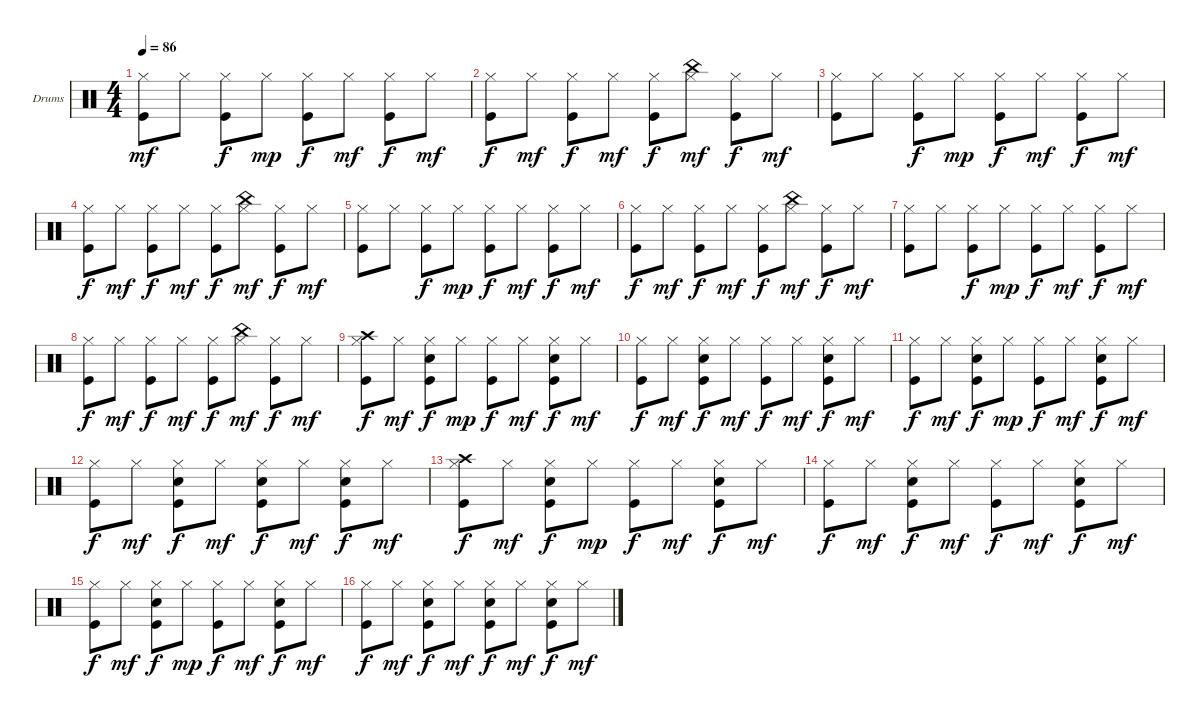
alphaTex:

\bracketExtendMode groupsimilarinstruments
\firstSystemTrackNameOrientation horizontal
\otherSystemsTrackNameOrientation horizontal
\track ("Ударные" "Drums") {instrument percussion}
\staff {score}
\articulation defaults
\ts (4 4)
\tempo 86
\clef neutral
\ks c
("Hi-Hat (closed)" "Kick (hit)").8{dy mf} "Hi-Hat (closed)".8 ("Hi-Hat (closed)" "Kick (hit)").8{dy f} "Hi-Hat (closed)".8{dy mp} ("Hi-Hat (closed)" "Kick (hit)").8{dy f} "Hi-Hat (closed)".8{dy mf} ("Hi-Hat (closed)" "Kick (hit)").8{dy f} "Hi-Hat (closed)".8{dy mf} |
("Hi-Hat (closed)" "Kick (hit)").8{dy f} "Hi-Hat (closed)".8{dy mf} ("Hi-Hat (closed)" "Kick (hit)").8{dy f} "Hi-Hat (closed)".8{dy mf} ("Hi-Hat (closed)" "Kick (hit)").8{dy f} ("Hi-Hat (closed)" "China (hit)").8{dy mf} ("Hi-Hat (closed)" "Kick (hit)").8{dy f} "Hi-Hat (closed)".8{dy mf} |
("Hi-Hat (closed)" "Kick (hit)").8 "Hi-Hat (closed)".8 ("Hi-Hat (closed)" "Kick (hit)").8{dy f} "Hi-Hat (closed)".8{dy mp} ("Hi-Hat (closed)" "Kick (hit)").8{dy f} "Hi-Hat (closed)".8{dy mf} ("Hi-Hat (closed)" "Kick (hit)").8{dy f} "Hi-Hat (closed)".8{dy mf} |
("Hi-Hat (closed)" "Kick (hit)").8{dy f} "Hi-Hat (closed)".8{dy mf} ("Hi-Hat (closed)" "Kick (hit)").8{dy f} "Hi-Hat (closed)".8{dy mf} ("Hi-Hat (closed)" "Kick (hit)").8{dy f} ("Hi-Hat (closed)" "China (hit)").8{dy mf} ("Hi-Hat (closed)" "Kick (hit)").8{dy f} "Hi-Hat (closed)".8{dy mf} |
("Hi-Hat (closed)" "Kick (hit)").8 "Hi-Hat (closed)".8 ("Hi-Hat (closed)" "Kick (hit)").8{dy f} "Hi-Hat (closed)".8{dy mp} ("Hi-Hat (closed)" "Kick (hit)").8{dy f} "Hi-Hat (closed)".8{dy mf} ("Hi-Hat (closed)" "Kick (hit)").8{dy f} "Hi-Hat (closed)".8{dy mf} |
("Hi-Hat (closed)" "Kick (hit)").8{dy f} "Hi-Hat (closed)".8{dy mf} ("Hi-Hat (closed)" "Kick (hit)").8{dy f} "Hi-Hat (closed)".8{dy mf} ("Hi-Hat (closed)" "Kick (hit)").8{dy f} ("Hi-Hat (closed)" "China (hit)").8{dy mf} ("Hi-Hat (closed)" "Kick (hit)").8{dy f} "Hi-Hat (closed)".8{dy mf} |
("Hi-Hat (closed)" "Kick (hit)").8 "Hi-Hat (closed)".8 ("Hi-Hat (closed)" "Kick (hit)").8{dy f} "Hi-Hat (closed)".8{dy mp} ("Hi-Hat (closed)" "Kick (hit)").8{dy f} "Hi-Hat (closed)".8{dy mf} ("Hi-Hat (closed)" "Kick (hit)").8{dy f} "Hi-Hat (closed)".8{dy mf} |
("Hi-Hat (closed)" "Kick (hit)").8{dy f} "Hi-Hat (closed)".8{dy mf} ("Hi-Hat (closed)" "Kick (hit)").8{dy f} "Hi-Hat (closed)".8{dy mf} ("Hi-Hat (closed)" "Kick (hit)").8{dy f} ("Hi-Hat (closed)" "China (hit)").8{dy mf} ("Hi-Hat (closed)" "Kick (hit)").8{dy f} "Hi-Hat (closed)".8{dy mf} |
("Hi-Hat (closed)" "Crash high (hit)" "Kick (hit)").8{dy f} "Hi-Hat (closed)".8{dy mf} ("Snare (hit) 2" "Hi-Hat (closed)" "Kick (hit)").8{dy f} "Hi-Hat (closed)".8{dy mp} ("Hi-Hat (closed)" "Kick (hit)").8{dy f} "Hi-Hat (closed)".8{dy mf} ("Snare (hit) 2" "Hi-Hat (closed)" "Kick (hit)").8{dy f} "Hi-Hat (closed)".8{dy mf} |
("Hi-Hat (closed)" "Kick (hit)").8{dy f} "Hi-Hat (closed)".8{dy mf} ("Snare (hit) 2" "Hi-Hat (closed)" "Kick (hit)").8{dy f} "Hi-Hat (closed)".8{dy mf} ("Hi-Hat (closed)" "Kick (hit)").8{dy f} "Hi-Hat (closed)".8{dy mf} ("Snare (hit) 2" "Hi-Hat (closed)" "Kick (hit)").8{dy f} "Hi-Hat (closed)".8{dy mf} |
("Hi-Hat (closed)" "Kick (hit)").8{dy f} "Hi-Hat (closed)".8{dy mf} ("Snare (hit) 2" "Hi-Hat (closed)" "Kick (hit)").8{dy f} "Hi-Hat (closed)".8{dy mp} ("Hi-Hat (closed)" "Kick (hit)").8{dy f} "Hi-Hat (closed)".8{dy mf} ("Snare (hit) 2" "Hi-Hat (closed)" "Kick (hit)").8{dy f} "Hi-Hat (closed)".8{dy mf} |
("Hi-Hat (closed)" "Kick (hit)").8{dy f} "Hi-Hat (closed)".8{dy mf} ("Snare (hit) 2" "Hi-Hat (closed)" "Kick (hit)").8{dy f} "Hi-Hat (closed)".8{dy mf} ("Hi-Hat (closed)" "Kick (hit)" "Snare (hit) 2").8{dy f} "Hi-Hat (closed)".8{dy mf} ("Snare (hit) 2" "Hi-Hat (closed)" "Kick (hit)").8{dy f} "Hi-Hat (closed)".8{dy mf} |
("Hi-Hat (closed)" "Crash high (hit)" "Kick (hit)").8{dy f} "Hi-Hat (closed)".8{dy mf} ("Snare (hit) 2" "Hi-Hat (closed)" "Kick (hit)").8{dy f} "Hi-Hat (closed)".8{dy mp} ("Hi-Hat (closed)" "Kick (hit)").8{dy f} "Hi-Hat (closed)".8{dy mf} ("Snare (hit) 2" "Hi-Hat (closed)" "Kick (hit)").8{dy f} "Hi-Hat (closed)".8{dy mf} |
("Hi-Hat (closed)" "Kick (hit)").8{dy f} "Hi-Hat (closed)".8{dy mf} ("Snare (hit) 2" "Hi-Hat (closed)" "Kick (hit)").8{dy f} "Hi-Hat (closed)".8{dy mf} ("Hi-Hat (closed)" "Kick (hit)").8{dy f} "Hi-Hat (closed)".8{dy mf} ("Snare (hit) 2" "Hi-Hat (closed)" "Kick (hit)").8{dy f} "Hi-Hat (closed)".8{dy mf} |
("Hi-Hat (closed)" "Kick (hit)").8{dy f} "Hi-Hat (closed)".8{dy mf} ("Snare (hit) 2" "Hi-Hat (closed)" "Kick (hit)").8{dy f} "Hi-Hat (closed)".8{dy mp} ("Hi-Hat (closed)" "Kick (hit)").8{dy f} "Hi-Hat (closed)".8{dy mf} ("Snare (hit) 2" "Hi-Hat (closed)" "Kick (hit)").8{dy f} "Hi-Hat (closed)".8{dy mf} |
("Hi-Hat (closed)" "Kick (hit)").8{dy f} "Hi-Hat (closed)".8{dy mf} ("Snare (hit) 2" "Hi-Hat (closed)" "Kick (hit)").8{dy f} "Hi-Hat (closed)".8{dy mf} ("Hi-Hat (closed)" "Kick (hit)" "Snare (hit) 2").8{dy f} "Hi-Hat (closed)".8{dy mf} ("Snare (hit) 2" "Hi-Hat (closed)" "Kick (hit)").8{dy f} "Hi-Hat (closed)".8{dy mf}
